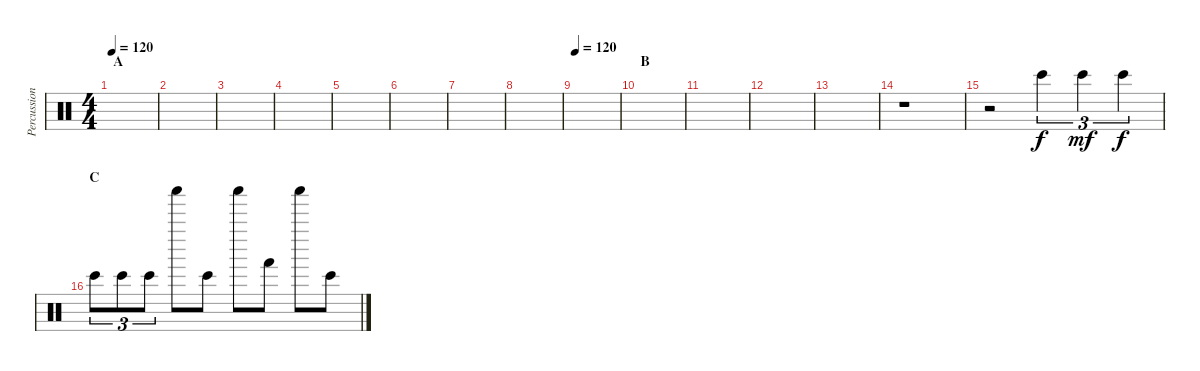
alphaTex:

\track ("Percussion" "Percussion") {instrument percussion}
\staff {score}
\articulation defaults
\ts (4 4)
\section ("" "A")
\tempo 120
\tempo 80
\tempo 120
\clef neutral
\ks c
|
|
|
|
|
|
|
|
\tempo 120
|
\section ("" "B")
|
|
|
|
r.1 |
r.2{volume 16} "Bongo High (hit)".4{tu (3 2)} "Bongo High (hit)".4{tu (3 2) dy mf} "Bongo High (hit)".4{tu (3 2) dy f} |
\section ("" "C")
"Bongo High (hit)".8{tu (3 2)} "Bongo High (hit)".8{tu (3 2)} "Bongo High (hit)".8{tu (3 2)} "Shaker (hit)".8 "Bongo High (hit)".8 "Shaker (hit)".8 "Hand (hit)".8 "Shaker (hit)".8 "Bongo High (hit)".8
